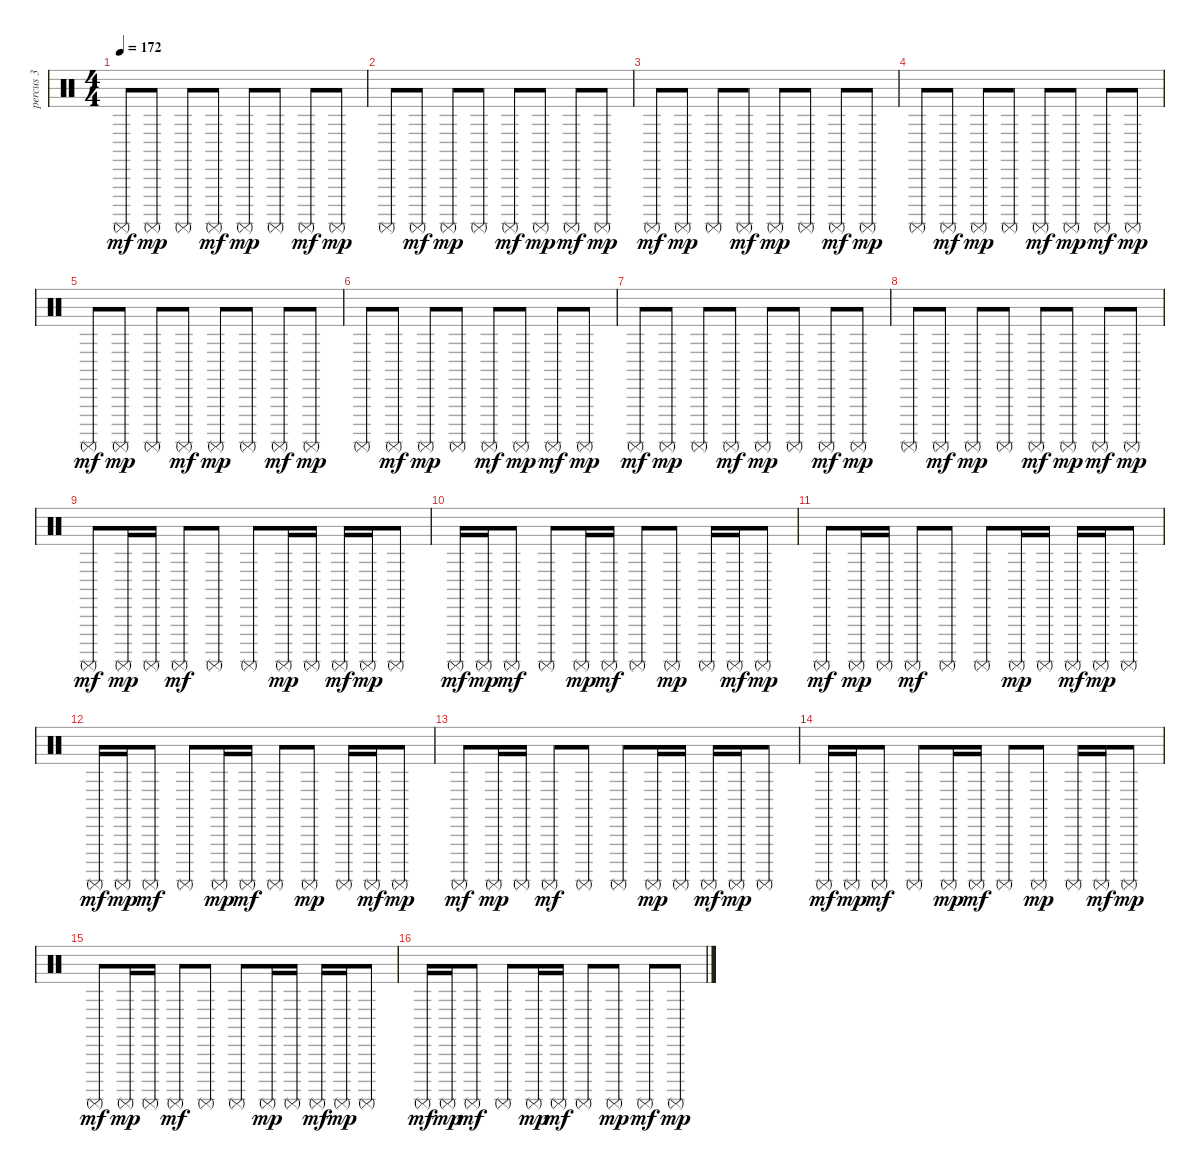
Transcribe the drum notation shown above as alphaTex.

\track ("percus 3" "percus 3") {instrument percussion}
\staff {score}
\articulation defaults
\ts (4 4)
\tempo 172
\clef neutral
\ks c "Surdo (mute)".8{dy mf} "Surdo (mute)".8{dy mp} "Surdo (mute)".8 "Surdo (mute)".8{dy mf} "Surdo (mute)".8{dy mp} "Surdo (mute)".8 "Surdo (mute)".8{dy mf} "Surdo (mute)".8{dy mp}
|
"Surdo (mute)".8 "Surdo (mute)".8{dy mf} "Surdo (mute)".8{dy mp} "Surdo (mute)".8 "Surdo (mute)".8{dy mf} "Surdo (mute)".8{dy mp} "Surdo (mute)".8{dy mf} "Surdo (mute)".8{dy mp} |
"Surdo (mute)".8{dy mf} "Surdo (mute)".8{dy mp} "Surdo (mute)".8 "Surdo (mute)".8{dy mf} "Surdo (mute)".8{dy mp} "Surdo (mute)".8 "Surdo (mute)".8{dy mf} "Surdo (mute)".8{dy mp} |
"Surdo (mute)".8 "Surdo (mute)".8{dy mf} "Surdo (mute)".8{dy mp} "Surdo (mute)".8 "Surdo (mute)".8{dy mf} "Surdo (mute)".8{dy mp} "Surdo (mute)".8{dy mf} "Surdo (mute)".8{dy mp} |
"Surdo (mute)".8{dy mf} "Surdo (mute)".8{dy mp} "Surdo (mute)".8 "Surdo (mute)".8{dy mf} "Surdo (mute)".8{dy mp} "Surdo (mute)".8 "Surdo (mute)".8{dy mf} "Surdo (mute)".8{dy mp} |
"Surdo (mute)".8 "Surdo (mute)".8{dy mf} "Surdo (mute)".8{dy mp} "Surdo (mute)".8 "Surdo (mute)".8{dy mf} "Surdo (mute)".8{dy mp} "Surdo (mute)".8{dy mf} "Surdo (mute)".8{dy mp} |
"Surdo (mute)".8{dy mf} "Surdo (mute)".8{dy mp} "Surdo (mute)".8 "Surdo (mute)".8{dy mf} "Surdo (mute)".8{dy mp} "Surdo (mute)".8 "Surdo (mute)".8{dy mf} "Surdo (mute)".8{dy mp} |
"Surdo (mute)".8 "Surdo (mute)".8{dy mf} "Surdo (mute)".8{dy mp} "Surdo (mute)".8 "Surdo (mute)".8{dy mf} "Surdo (mute)".8{dy mp} "Surdo (mute)".8{dy mf} "Surdo (mute)".8{dy mp} |
"Surdo (mute)".8{dy mf} "Surdo (mute)".16{dy mp} "Surdo (mute)".16 "Surdo (mute)".8{dy mf} "Surdo (mute)".8 "Surdo (mute)".8 "Surdo (mute)".16{dy mp} "Surdo (mute)".16 "Surdo (mute)".16{dy mf} "Surdo (mute)".16{dy mp} "Surdo (mute)".8 |
"Surdo (mute)".16{dy mf} "Surdo (mute)".16{dy mp} "Surdo (mute)".8{dy mf} "Surdo (mute)".8 "Surdo (mute)".16{dy mp} "Surdo (mute)".16{dy mf} "Surdo (mute)".8 "Surdo (mute)".8{dy mp} "Surdo (mute)".16 "Surdo (mute)".16{dy mf} "Surdo (mute)".8{dy mp} |
"Surdo (mute)".8{dy mf} "Surdo (mute)".16{dy mp} "Surdo (mute)".16 "Surdo (mute)".8{dy mf} "Surdo (mute)".8 "Surdo (mute)".8 "Surdo (mute)".16{dy mp} "Surdo (mute)".16 "Surdo (mute)".16{dy mf} "Surdo (mute)".16{dy mp} "Surdo (mute)".8 |
"Surdo (mute)".16{dy mf} "Surdo (mute)".16{dy mp} "Surdo (mute)".8{dy mf} "Surdo (mute)".8 "Surdo (mute)".16{dy mp} "Surdo (mute)".16{dy mf} "Surdo (mute)".8 "Surdo (mute)".8{dy mp} "Surdo (mute)".16 "Surdo (mute)".16{dy mf} "Surdo (mute)".8{dy mp} |
"Surdo (mute)".8{dy mf} "Surdo (mute)".16{dy mp} "Surdo (mute)".16 "Surdo (mute)".8{dy mf} "Surdo (mute)".8 "Surdo (mute)".8 "Surdo (mute)".16{dy mp} "Surdo (mute)".16 "Surdo (mute)".16{dy mf} "Surdo (mute)".16{dy mp} "Surdo (mute)".8 |
"Surdo (mute)".16{dy mf} "Surdo (mute)".16{dy mp} "Surdo (mute)".8{dy mf} "Surdo (mute)".8 "Surdo (mute)".16{dy mp} "Surdo (mute)".16{dy mf} "Surdo (mute)".8 "Surdo (mute)".8{dy mp} "Surdo (mute)".16 "Surdo (mute)".16{dy mf} "Surdo (mute)".8{dy mp} |
"Surdo (mute)".8{dy mf} "Surdo (mute)".16{dy mp} "Surdo (mute)".16 "Surdo (mute)".8{dy mf} "Surdo (mute)".8 "Surdo (mute)".8 "Surdo (mute)".16{dy mp} "Surdo (mute)".16 "Surdo (mute)".16{dy mf} "Surdo (mute)".16{dy mp} "Surdo (mute)".8 |
"Surdo (mute)".16{dy mf} "Surdo (mute)".16{dy mp} "Surdo (mute)".8{dy mf} "Surdo (mute)".8 "Surdo (mute)".16{dy mp} "Surdo (mute)".16{dy mf} "Surdo (mute)".8 "Surdo (mute)".8{dy mp} "Surdo (mute)".8{dy mf} "Surdo (mute)".8{dy mp}
